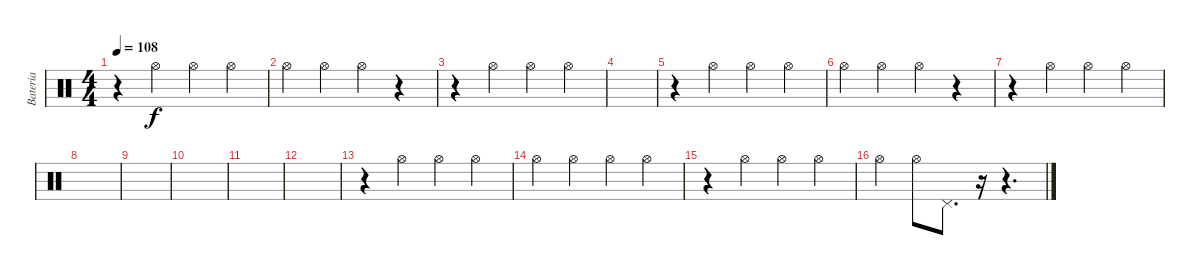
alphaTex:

\track ("Bateria" "Bateria") {instrument percussion}
\staff {score}
\articulation defaults
\ts (4 4)
\tempo 108
\clef neutral
\ks c
r.4{dy f} "Hi-Hat (open)".4 "Hi-Hat (open)".4 "Hi-Hat (open)".4 |
"Hi-Hat (open)".4 "Hi-Hat (open)".4 "Hi-Hat (open)".4 r.4 |
r.4 "Hi-Hat (open)".4 "Hi-Hat (open)".4 "Hi-Hat (open)".4 |
|
r.4 "Hi-Hat (open)".4 "Hi-Hat (open)".4 "Hi-Hat (open)".4 |
"Hi-Hat (open)".4 "Hi-Hat (open)".4 "Hi-Hat (open)".4 r.4 |
r.4 "Hi-Hat (open)".4 "Hi-Hat (open)".4 "Hi-Hat (open)".4 |
|
|
|
|
|
r.4 "Hi-Hat (open)".4 "Hi-Hat (open)".4 "Hi-Hat (open)".4 |
"Hi-Hat (open)".4 "Hi-Hat (open)".4 "Hi-Hat (open)".4 "Hi-Hat (open)".4 |
r.4 "Hi-Hat (open)".4 "Hi-Hat (open)".4 "Hi-Hat (open)".4 |
"Hi-Hat (open)".4 "Hi-Hat (open)".8 "Pedal Hi-Hat (hit)".8{d} r.16 r.4{d}
